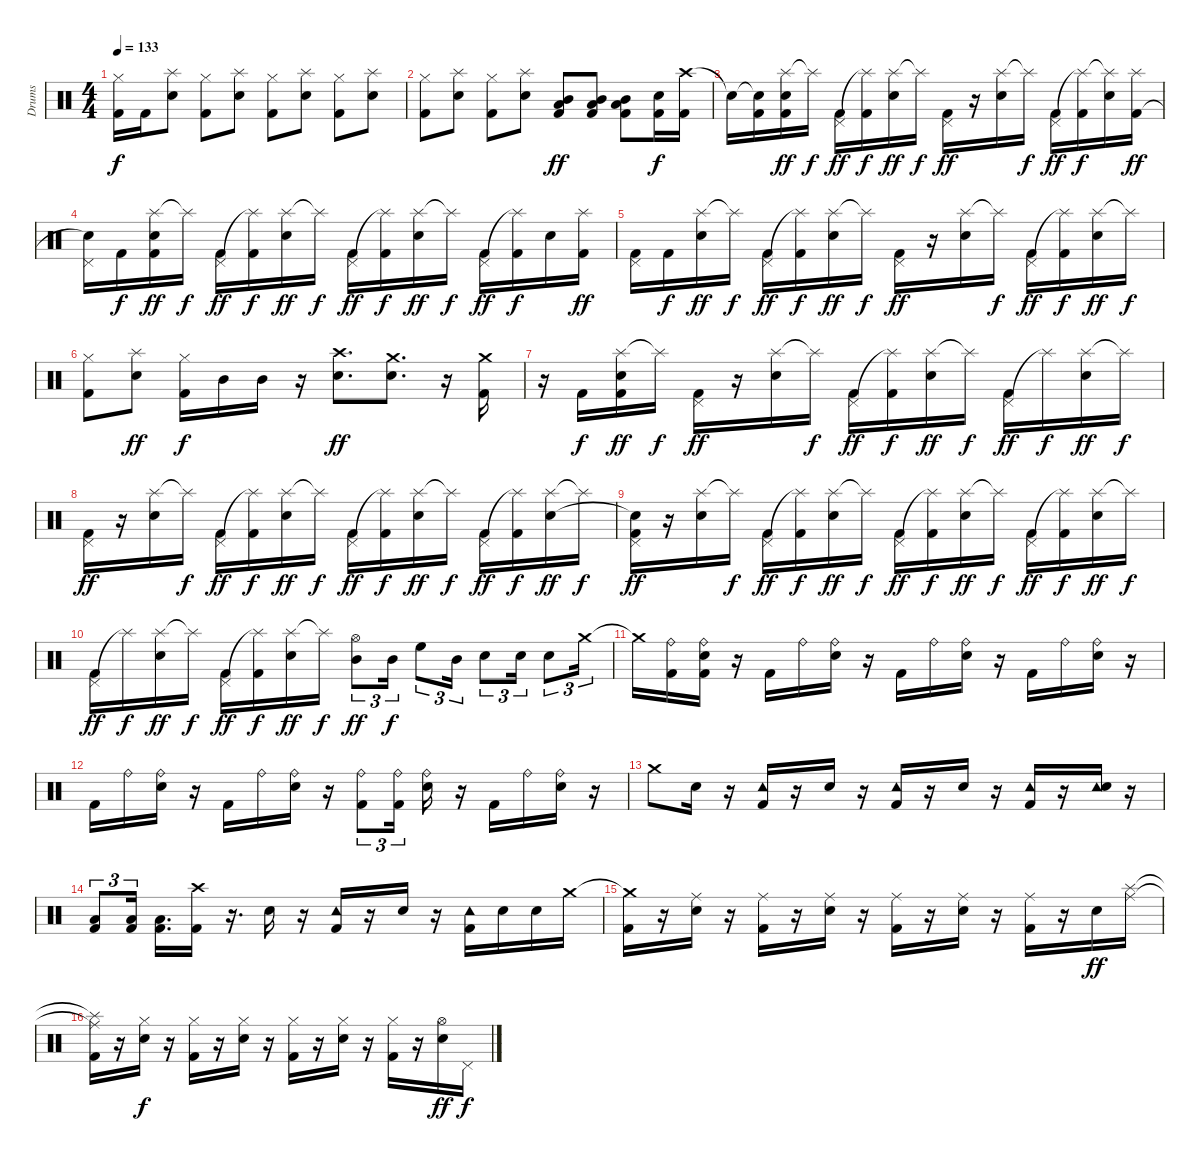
\track ("Drums" "Drums") {instrument percussion}
\staff {score}
\articulation defaults
\ts (4 4)
\tempo 133
\clef neutral
\ks c
("Hi-Hat (closed)" "Kick (hit) 2").16{dy f} "Kick (hit) 2".16 ("Splash (hit)" "Snare (hit) 2").8 ("Hi-Hat (closed)" "Kick (hit) 2").8 ("Splash (hit)" "Snare (hit) 2").8 ("Hi-Hat (closed)" "Kick (hit) 2").8 ("Splash (hit)" "Snare (hit) 2").8 ("Hi-Hat (closed)" "Kick (hit) 2").8 ("Splash (hit)" "Snare (hit) 2").8 |
("Hi-Hat (closed)" "Kick (hit) 2").8 ("Splash (hit)" "Snare (hit) 2").8 ("Hi-Hat (closed)" "Kick (hit) 2").8 ("Splash (hit)" "Snare (hit) 2").8 ("Low Tom (hit)" "Mid Tom (hit)" "Kick (hit) 2").8{dy ff} ("Low Tom (hit)" "Mid Tom (hit)" "Kick (hit) 2").8 ("Low Tom (hit)" "Mid Tom (hit)" "Kick (hit) 2").8 ("Snare (hit) 2" "Kick (hit) 2").16{dy f} ("Crash high (hit)" "Kick (hit) 2").16 |
"Snare (hit)"{t}.16 ("Snare (hit)"{t} "Kick (hit) 2").16 ("Splash (hit)" "Snare (hit) 2" "Kick (hit) 2").16{dy ff} "Splash (hit)"{t}.16{dy f} ("Pedal Hi-Hat (hit)" "Kick (hit) 2").16{dy ff} ("Splash (hit)"{t} "Kick (hit) 2").16{dy f} ("Splash (hit)" "Snare (hit) 2").16{dy ff} "Splash (hit)"{t}.16{dy f} ("Pedal Hi-Hat (hit)" "Kick (hit) 2").16{dy ff} r.16 ("Splash (hit)" "Snare (hit) 2").16 "Splash (hit)"{t}.16{dy f} ("Pedal Hi-Hat (hit)" "Kick (hit) 2").16{dy ff} ("Splash (hit)"{t} "Kick (hit) 2").16{dy f} ("Splash (hit)"{t} "Snare (hit) 2").16 ("Splash (hit)" "Kick (hit) 2").16{dy ff} |
("Pedal Hi-Hat (hit)" "Snare (hit)"{t}).16 "Kick (hit) 2".16{dy f} ("Splash (hit)" "Snare (hit) 2" "Kick (hit) 2").16{dy ff} "Splash (hit)"{t}.16{dy f} ("Pedal Hi-Hat (hit)" "Kick (hit) 2").16{dy ff} ("Splash (hit)"{t} "Kick (hit) 2").16{dy f} ("Splash (hit)" "Snare (hit) 2").16{dy ff} "Splash (hit)"{t}.16{dy f} ("Pedal Hi-Hat (hit)" "Kick (hit) 2").16{dy ff} ("Splash (hit)"{t} "Kick (hit) 2").16{dy f} ("Splash (hit)" "Snare (hit) 2").16{dy ff} "Splash (hit)"{t}.16{dy f} ("Pedal Hi-Hat (hit)" "Kick (hit) 2").16{dy ff} ("Splash (hit)"{t} "Kick (hit) 2").16{dy f} "Snare (hit) 2".16 ("Splash (hit)" "Kick (hit) 2").16{dy ff} |
("Pedal Hi-Hat (hit)" "Kick (hit) 2").16 "Kick (hit) 2".16{dy f} ("Splash (hit)" "Snare (hit) 2").16{dy ff} "Splash (hit)"{t}.16{dy f} ("Pedal Hi-Hat (hit)" "Kick (hit) 2").16{dy ff} ("Splash (hit)"{t} "Kick (hit) 2").16{dy f} ("Splash (hit)" "Snare (hit) 2").16{dy ff} "Splash (hit)"{t}.16{dy f} ("Pedal Hi-Hat (hit)" "Kick (hit) 2").16{dy ff} r.16 ("Splash (hit)" "Snare (hit) 2").16 "Splash (hit)"{t}.16{dy f} ("Pedal Hi-Hat (hit)" "Kick (hit) 2").16{dy ff} ("Splash (hit)"{t} "Kick (hit) 2").16{dy f} ("Splash (hit)" "Snare (hit) 2").16{dy ff} "Splash (hit)"{t}.16{dy f} |
("Hi-Hat (closed)" "Kick (hit) 2").8 ("Splash (hit)" "Snare (hit) 2").8{dy ff} ("Hi-Hat (closed)" "Kick (hit) 2").16{dy f} "Mid Tom (hit)".16 "Mid Tom (hit)".16 r.16 ("Crash high (hit)" "Snare (hit) 2").8{d dy ff} ("Crash medium (hit)" "Snare (hit) 2").8{d} r.16 ("Crash medium (hit)" "Kick (hit) 2").16 |
r.16 "Kick (hit) 2".16{dy f} ("Splash (hit)" "Snare (hit) 2" "Kick (hit) 2").16{dy ff} "Splash (hit)"{t}.16{dy f} ("Pedal Hi-Hat (hit)" "Kick (hit) 2").16{dy ff} r.16 ("Splash (hit)" "Snare (hit) 2").16 "Splash (hit)"{t}.16{dy f} ("Pedal Hi-Hat (hit)" "Kick (hit) 2").16{dy ff} ("Splash (hit)"{t} "Kick (hit) 2").16{dy f} ("Splash (hit)" "Snare (hit) 2").16{dy ff} "Splash (hit)"{t}.16{dy f} ("Pedal Hi-Hat (hit)" "Kick (hit) 2").16{dy ff} "Splash (hit)"{t}.16{dy f} ("Splash (hit)" "Snare (hit) 2").16{dy ff} "Splash (hit)"{t}.16{dy f} |
("Pedal Hi-Hat (hit)" "Kick (hit) 2").16{dy ff} r.16 ("Splash (hit)" "Snare (hit) 2").16 "Splash (hit)"{t}.16{dy f} ("Pedal Hi-Hat (hit)" "Kick (hit) 2").16{dy ff} ("Splash (hit)"{t} "Kick (hit) 2").16{dy f} ("Splash (hit)" "Snare (hit) 2").16{dy ff} "Splash (hit)"{t}.16{dy f} ("Pedal Hi-Hat (hit)" "Kick (hit) 2").16{dy ff} ("Splash (hit)"{t} "Kick (hit) 2").16{dy f} ("Splash (hit)" "Snare (hit) 2").16{dy ff} "Splash (hit)"{t}.16{dy f} ("Pedal Hi-Hat (hit)" "Kick (hit) 2").16{dy ff} ("Splash (hit)"{t} "Kick (hit) 2").16{dy f} ("Splash (hit)" "Snare (hit) 2").16{dy ff} "Splash (hit)"{t}.16{dy f} |
("Pedal Hi-Hat (hit)" "Snare (hit)"{t} "Kick (hit) 2").16{dy ff} r.16 ("Splash (hit)" "Snare (hit) 2").16 "Splash (hit)"{t}.16{dy f} ("Pedal Hi-Hat (hit)" "Kick (hit) 2").16{dy ff} ("Splash (hit)"{t} "Kick (hit) 2").16{dy f} ("Splash (hit)" "Snare (hit) 2").16{dy ff} "Splash (hit)"{t}.16{dy f} ("Pedal Hi-Hat (hit)" "Kick (hit) 2").16{dy ff} ("Splash (hit)"{t} "Kick (hit) 2").16{dy f} ("Splash (hit)" "Snare (hit) 2").16{dy ff} "Splash (hit)"{t}.16{dy f} ("Pedal Hi-Hat (hit)" "Kick (hit) 2").16{dy ff} ("Splash (hit)"{t} "Kick (hit) 2").16{dy f} ("Splash (hit)" "Snare (hit) 2").16{dy ff} "Splash (hit)"{t}.16{dy f} |
("Pedal Hi-Hat (hit)" "Kick (hit) 2").16{dy ff} "Splash (hit)"{t}.16{dy f} ("Splash (hit)" "Snare (hit) 2").16{dy ff} "Splash (hit)"{t}.16{dy f} ("Pedal Hi-Hat (hit)" "Kick (hit) 2").16{dy ff} ("Splash (hit)"{t} "Kick (hit) 2").16{dy f} ("Splash (hit)" "Snare (hit) 2").16{dy ff} "Splash (hit)"{t}.16{dy f} ("Hi-Hat (open)" "Mid Tom (hit)").8{tu (3 2) dy ff} "Mid Tom (hit)".16{tu (3 2) dy f} "High Floor Tom (hit)".8{tu (3 2)} "Mid Tom (hit)".16{tu (3 2)} "Snare (hit) 2".8{tu (3 2)} "Snare (hit) 2".16{tu (3 2)} "Snare (hit) 2".8{tu (3 2)} "Crash medium (hit)".16{tu (3 2)} |
"Crash medium (hit)"{t}.16 ("Ride (bell)" "Kick (hit) 2").16 ("Ride (bell)" "Snare (hit) 2" "Kick (hit) 2").16 r.16 "Kick (hit) 2".16 "Ride (bell)".16 ("Ride (bell)" "Snare (hit) 2").16 r.16 "Kick (hit) 2".16 "Ride (bell)".16 ("Ride (bell)" "Snare (hit) 2").16 r.16 "Kick (hit) 2".16 "Ride (bell)".16 ("Ride (bell)" "Snare (hit) 2").16 r.16 |
"Kick (hit) 2".16 "Ride (bell)".16 ("Ride (bell)" "Snare (hit) 2").16 r.16 "Kick (hit) 2".16 "Ride (bell)".16 ("Ride (bell)" "Snare (hit) 2").16 r.16 ("Ride (bell)" "Kick (hit) 2").8{tu (3 2)} ("Ride (bell)" "Kick (hit) 2").16{tu (3 2)} ("Ride (bell)" "Snare (hit) 2").16 r.16 "Kick (hit) 2".16 "Ride (bell)".16 ("Ride (bell)" "Snare (hit) 2").16 r.16 |
"Crash medium (hit)".8 "Snare (hit) 2".16 r.16 ("Tambourine (hit)" "Kick (hit) 2").16 r.16 "Snare (hit) 2".16 r.16 ("Tambourine (hit)" "Kick (hit) 2").16 r.16 "Snare (hit) 2".16 r.16 ("Tambourine (hit)" "Kick (hit) 2").16 r.16 ("Tambourine (hit)" "Snare (hit) 2").16 r.16 |
("Low Tom (hit)" "Kick (hit) 2").8{tu (3 2)} ("Low Tom (hit)" "Kick (hit) 2").16{tu (3 2) beam splitsecondary} ("Low Tom (hit)" "Kick (hit) 2").16{d} ("Crash high (hit)" "Kick (hit) 2").16 r.16{d} "Snare (hit) 2".16 r.16 ("Tambourine (hit)" "Kick (hit) 2").16 r.16 "Snare (hit) 2".16 r.16 ("Tambourine (hit)" "Kick (hit) 2").16 "Snare (hit) 2".16 "Snare (hit) 2".16 "Crash medium (hit)".16 |
("Crash medium (hit)"{t} "Kick (hit) 2").16 r.16 ("Ride (middle)" "Snare (hit) 2").16 r.16 ("Ride (middle)" "Kick (hit) 2").16 r.16 ("Ride (middle)" "Snare (hit) 2").16 r.16 ("Ride (middle)" "Kick (hit) 2").16 r.16 ("Ride (middle)" "Snare (hit) 2").16 r.16 ("Ride (middle)" "Kick (hit) 2").16 r.16 "Snare (hit) 2".16{dy ff} ("Ride (middle)" "Splash (hit)").16 |
("Ride (middle)"{t} "Splash (hit)"{t} "Kick (hit) 2").16 r.16 ("Hi-Hat (closed)" "Snare (hit) 2").16{dy f} r.16 ("Hi-Hat (closed)" "Kick (hit) 2").16 r.16 ("Hi-Hat (closed)" "Snare (hit) 2").16 r.16 ("Hi-Hat (closed)" "Kick (hit) 2").16 r.16 ("Hi-Hat (closed)" "Snare (hit) 2").16 r.16 ("Hi-Hat (closed)" "Kick (hit) 2").16 r.16 ("Hi-Hat (open)" "Snare (hit) 2").16{dy ff} "Pedal Hi-Hat (hit)".16{dy f}
